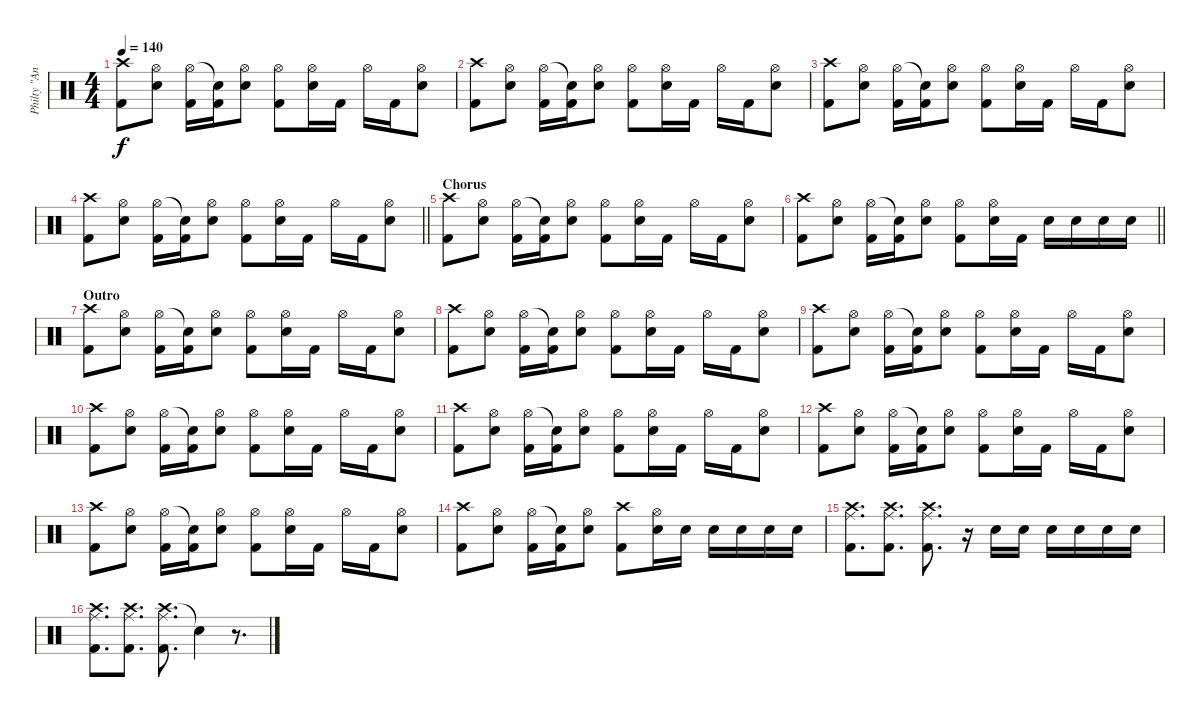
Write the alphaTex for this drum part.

\track ("Philty \"Animal\" Taylor (Drums)" "Philty \"An") {instrument percussion}
\staff {score}
\articulation defaults
\ts (4 4)
\tempo 140
\clef neutral
\ks c
("Crash high (hit)" "Kick (hit) 2").8{dy f} ("Hi-Hat (open)" "Electric Snare (hit)").8 ("Hi-Hat (open)" "Kick (hit) 2").16 ("Snare (hit)"{t} "Kick (hit) 2").16 ("Hi-Hat (open)" "Electric Snare (hit)").8 ("Hi-Hat (open)" "Kick (hit) 2").8 ("Hi-Hat (open)" "Electric Snare (hit)").16 "Kick (hit) 2".16 "Hi-Hat (open)".16 "Kick (hit) 2".16 ("Hi-Hat (open)" "Electric Snare (hit)").8 |
("Crash high (hit)" "Kick (hit) 2").8 ("Hi-Hat (open)" "Electric Snare (hit)").8 ("Hi-Hat (open)" "Kick (hit) 2").16 ("Snare (hit)"{t} "Kick (hit) 2").16 ("Hi-Hat (open)" "Electric Snare (hit)").8 ("Hi-Hat (open)" "Kick (hit) 2").8 ("Hi-Hat (open)" "Electric Snare (hit)").16 "Kick (hit) 2".16 "Hi-Hat (open)".16 "Kick (hit) 2".16 ("Hi-Hat (open)" "Electric Snare (hit)").8 |
("Crash high (hit)" "Kick (hit) 2").8 ("Hi-Hat (open)" "Electric Snare (hit)").8 ("Hi-Hat (open)" "Kick (hit) 2").16 ("Snare (hit)"{t} "Kick (hit) 2").16 ("Hi-Hat (open)" "Electric Snare (hit)").8 ("Hi-Hat (open)" "Kick (hit) 2").8 ("Hi-Hat (open)" "Electric Snare (hit)").16 "Kick (hit) 2".16 "Hi-Hat (open)".16 "Kick (hit) 2".16 ("Hi-Hat (open)" "Electric Snare (hit)").8 |
\barLineRight lightlight
("Crash high (hit)" "Kick (hit) 2").8 ("Hi-Hat (open)" "Electric Snare (hit)").8 ("Hi-Hat (open)" "Kick (hit) 2").16 ("Snare (hit)"{t} "Kick (hit) 2").16 ("Hi-Hat (open)" "Electric Snare (hit)").8 ("Hi-Hat (open)" "Kick (hit) 2").8 ("Hi-Hat (open)" "Electric Snare (hit)").16 "Kick (hit) 2".16 "Hi-Hat (open)".16 "Kick (hit) 2".16 ("Hi-Hat (open)" "Electric Snare (hit)").8 |
\section ("" "Chorus")
("Crash high (hit)" "Kick (hit) 2").8 ("Hi-Hat (open)" "Electric Snare (hit)").8 ("Hi-Hat (open)" "Kick (hit) 2").16 ("Snare (hit)"{t} "Kick (hit) 2").16 ("Hi-Hat (open)" "Electric Snare (hit)").8 ("Hi-Hat (open)" "Kick (hit) 2").8 ("Hi-Hat (open)" "Electric Snare (hit)").16 "Kick (hit) 2".16 "Hi-Hat (open)".16 "Kick (hit) 2".16 ("Hi-Hat (open)" "Electric Snare (hit)").8 |
\barLineRight lightlight
("Crash high (hit)" "Kick (hit) 2").8 ("Hi-Hat (open)" "Electric Snare (hit)").8 ("Hi-Hat (open)" "Kick (hit) 2").16 ("Snare (hit)"{t} "Kick (hit) 2").16 ("Hi-Hat (open)" "Electric Snare (hit)").8 ("Hi-Hat (open)" "Kick (hit) 2").8 ("Hi-Hat (open)" "Electric Snare (hit)").16 "Kick (hit) 2".16 "Electric Snare (hit)".16 "Electric Snare (hit)".16 "Electric Snare (hit)".16 "Electric Snare (hit)".16 |
\section ("" "Outro")
("Crash high (hit)" "Kick (hit) 2").8 ("Hi-Hat (open)" "Electric Snare (hit)").8 ("Hi-Hat (open)" "Kick (hit) 2").16 ("Snare (hit)"{t} "Kick (hit) 2").16 ("Hi-Hat (open)" "Electric Snare (hit)").8 ("Hi-Hat (open)" "Kick (hit) 2").8 ("Hi-Hat (open)" "Electric Snare (hit)").16 "Kick (hit) 2".16 "Hi-Hat (open)".16 "Kick (hit) 2".16 ("Hi-Hat (open)" "Electric Snare (hit)").8 |
("Crash high (hit)" "Kick (hit) 2").8 ("Hi-Hat (open)" "Electric Snare (hit)").8 ("Hi-Hat (open)" "Kick (hit) 2").16 ("Snare (hit)"{t} "Kick (hit) 2").16 ("Hi-Hat (open)" "Electric Snare (hit)").8 ("Hi-Hat (open)" "Kick (hit) 2").8 ("Hi-Hat (open)" "Electric Snare (hit)").16 "Kick (hit) 2".16 "Hi-Hat (open)".16 "Kick (hit) 2".16 ("Hi-Hat (open)" "Electric Snare (hit)").8 |
("Crash high (hit)" "Kick (hit) 2").8 ("Hi-Hat (open)" "Electric Snare (hit)").8 ("Hi-Hat (open)" "Kick (hit) 2").16 ("Snare (hit)"{t} "Kick (hit) 2").16 ("Hi-Hat (open)" "Electric Snare (hit)").8 ("Hi-Hat (open)" "Kick (hit) 2").8 ("Hi-Hat (open)" "Electric Snare (hit)").16 "Kick (hit) 2".16 "Hi-Hat (open)".16 "Kick (hit) 2".16 ("Hi-Hat (open)" "Electric Snare (hit)").8 |
("Crash high (hit)" "Kick (hit) 2").8 ("Hi-Hat (open)" "Electric Snare (hit)").8 ("Hi-Hat (open)" "Kick (hit) 2").16 ("Snare (hit)"{t} "Kick (hit) 2").16 ("Hi-Hat (open)" "Electric Snare (hit)").8 ("Hi-Hat (open)" "Kick (hit) 2").8 ("Hi-Hat (open)" "Electric Snare (hit)").16 "Kick (hit) 2".16 "Hi-Hat (open)".16 "Kick (hit) 2".16 ("Hi-Hat (open)" "Electric Snare (hit)").8 |
("Crash high (hit)" "Kick (hit) 2").8 ("Hi-Hat (open)" "Electric Snare (hit)").8 ("Hi-Hat (open)" "Kick (hit) 2").16 ("Snare (hit)"{t} "Kick (hit) 2").16 ("Hi-Hat (open)" "Electric Snare (hit)").8 ("Hi-Hat (open)" "Kick (hit) 2").8 ("Hi-Hat (open)" "Electric Snare (hit)").16 "Kick (hit) 2".16 "Hi-Hat (open)".16 "Kick (hit) 2".16 ("Hi-Hat (open)" "Electric Snare (hit)").8 |
("Crash high (hit)" "Kick (hit) 2").8 ("Hi-Hat (open)" "Electric Snare (hit)").8 ("Hi-Hat (open)" "Kick (hit) 2").16 ("Snare (hit)"{t} "Kick (hit) 2").16 ("Hi-Hat (open)" "Electric Snare (hit)").8 ("Hi-Hat (open)" "Kick (hit) 2").8 ("Hi-Hat (open)" "Electric Snare (hit)").16 "Kick (hit) 2".16 "Hi-Hat (open)".16 "Kick (hit) 2".16 ("Hi-Hat (open)" "Electric Snare (hit)").8 |
("Crash high (hit)" "Kick (hit) 2").8 ("Hi-Hat (open)" "Electric Snare (hit)").8 ("Hi-Hat (open)" "Kick (hit) 2").16 ("Snare (hit)"{t} "Kick (hit) 2").16 ("Hi-Hat (open)" "Electric Snare (hit)").8 ("Hi-Hat (open)" "Kick (hit) 2").8 ("Hi-Hat (open)" "Electric Snare (hit)").16 "Kick (hit) 2".16 "Hi-Hat (open)".16 "Kick (hit) 2".16 ("Hi-Hat (open)" "Electric Snare (hit)").8 |
("Crash high (hit)" "Kick (hit) 2").8 ("Hi-Hat (open)" "Electric Snare (hit)").8 ("Hi-Hat (open)" "Kick (hit) 2").16 ("Snare (hit)"{t} "Kick (hit) 2").16 ("Hi-Hat (open)" "Electric Snare (hit)").8 ("Crash high (hit)" "Kick (hit) 2").8 ("Hi-Hat (open)" "Electric Snare (hit)").16 "Electric Snare (hit)".16 "Electric Snare (hit)".16 "Electric Snare (hit)".16 "Electric Snare (hit)".16 "Electric Snare (hit)".16 |
("Crash high (hit)" "Ride (middle)" "Kick (hit) 2").8{d} ("Crash high (hit)" "Ride (middle)" "Kick (hit) 2").8{d} ("Crash high (hit)" "Ride (middle)" "Kick (hit) 2").8{d} r.16 "Electric Snare (hit)".16 "Electric Snare (hit)".16 "Electric Snare (hit)".16 "Electric Snare (hit)".16 "Electric Snare (hit)".16 "Electric Snare (hit)".16 |
("Crash high (hit)" "Ride (middle)" "Kick (hit) 2").8{d} ("Crash high (hit)" "Ride (middle)" "Kick (hit) 2").8{d} ("Crash high (hit)" "Ride (middle)" "Kick (hit) 2").8{d} "Snare (hit)"{t}.4 r.8{d}
